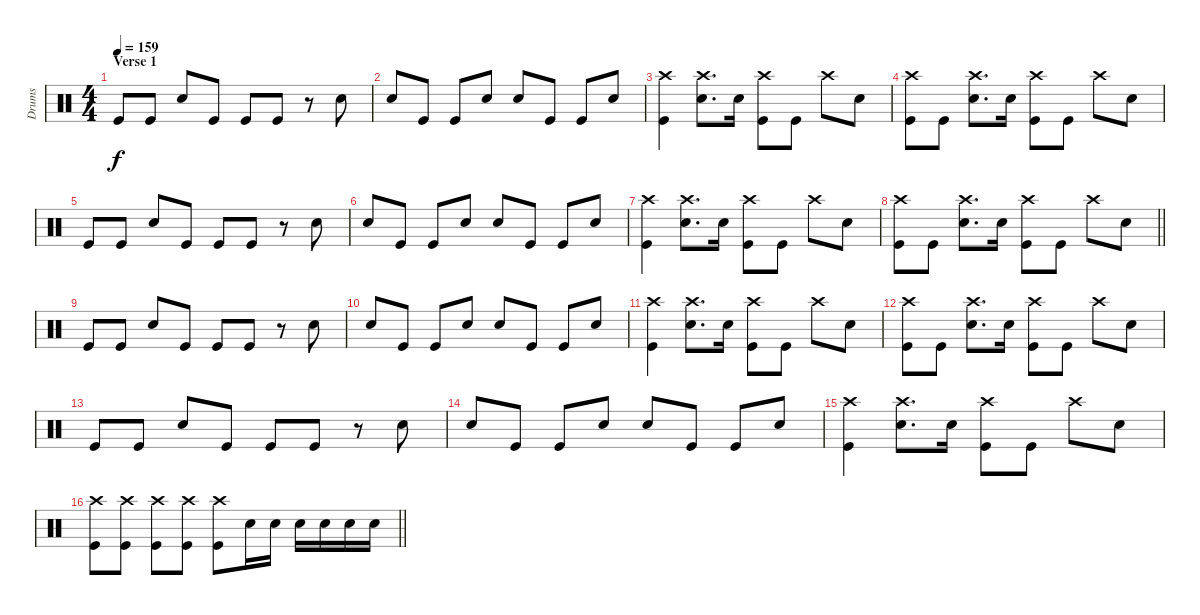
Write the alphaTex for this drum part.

\track ("Drums" "Drums") {instrument percussion}
\staff {score}
\articulation defaults
\ts (4 4)
\section ("" "Verse 1")
\tempo 159
\clef neutral
\ks c "Kick (hit)".8{dy f} "Kick (hit)".8 "Snare (hit) 2".8 "Kick (hit)".8 "Kick (hit)".8 "Kick (hit)".8
r.8 "Snare (hit) 2".8 |
"Snare (hit) 2".8 "Kick (hit)".8 "Kick (hit)".8 "Snare (hit) 2".8 "Snare (hit) 2".8 "Kick (hit)".8 "Kick (hit)".8 "Snare (hit) 2".8 |
("Crash high (hit)" "Kick (hit)").4 ("Crash high (hit)" "Snare (hit) 2").8{d} "Snare (hit) 2".16 ("Crash high (hit)" "Kick (hit)").8 "Kick (hit)".8 "Crash high (hit)".8 "Snare (hit) 2".8 |
("Crash high (hit)" "Kick (hit)").8 "Kick (hit)".8 ("Crash high (hit)" "Snare (hit) 2").8{d} "Snare (hit) 2".16 ("Crash high (hit)" "Kick (hit)").8 "Kick (hit)".8 "Crash high (hit)".8 "Snare (hit) 2".8 |
"Kick (hit)".8 "Kick (hit)".8 "Snare (hit) 2".8 "Kick (hit)".8 "Kick (hit)".8 "Kick (hit)".8 r.8 "Snare (hit) 2".8 |
"Snare (hit) 2".8 "Kick (hit)".8 "Kick (hit)".8 "Snare (hit) 2".8 "Snare (hit) 2".8 "Kick (hit)".8 "Kick (hit)".8 "Snare (hit) 2".8 |
("Crash high (hit)" "Kick (hit)").4 ("Crash high (hit)" "Snare (hit) 2").8{d} "Snare (hit) 2".16 ("Crash high (hit)" "Kick (hit)").8 "Kick (hit)".8 "Crash high (hit)".8 "Snare (hit) 2".8 |
\barLineRight lightlight
("Crash high (hit)" "Kick (hit)").8 "Kick (hit)".8 ("Crash high (hit)" "Snare (hit) 2").8{d} "Snare (hit) 2".16 ("Crash high (hit)" "Kick (hit)").8 "Kick (hit)".8 "Crash high (hit)".8 "Snare (hit) 2".8 |
\section ("" "")
"Kick (hit)".8 "Kick (hit)".8 "Snare (hit) 2".8 "Kick (hit)".8 "Kick (hit)".8 "Kick (hit)".8 r.8 "Snare (hit) 2".8 |
"Snare (hit) 2".8 "Kick (hit)".8 "Kick (hit)".8 "Snare (hit) 2".8 "Snare (hit) 2".8 "Kick (hit)".8 "Kick (hit)".8 "Snare (hit) 2".8 |
("Crash high (hit)" "Kick (hit)").4 ("Crash high (hit)" "Snare (hit) 2").8{d} "Snare (hit) 2".16 ("Crash high (hit)" "Kick (hit)").8 "Kick (hit)".8 "Crash high (hit)".8 "Snare (hit) 2".8 |
("Crash high (hit)" "Kick (hit)").8 "Kick (hit)".8 ("Crash high (hit)" "Snare (hit) 2").8{d} "Snare (hit) 2".16 ("Crash high (hit)" "Kick (hit)").8 "Kick (hit)".8 "Crash high (hit)".8 "Snare (hit) 2".8 |
"Kick (hit)".8 "Kick (hit)".8 "Snare (hit) 2".8 "Kick (hit)".8 "Kick (hit)".8 "Kick (hit)".8 r.8 "Snare (hit) 2".8 |
"Snare (hit) 2".8 "Kick (hit)".8 "Kick (hit)".8 "Snare (hit) 2".8 "Snare (hit) 2".8 "Kick (hit)".8 "Kick (hit)".8 "Snare (hit) 2".8 |
("Crash high (hit)" "Kick (hit)").4 ("Crash high (hit)" "Snare (hit) 2").8{d} "Snare (hit) 2".16 ("Crash high (hit)" "Kick (hit)").8 "Kick (hit)".8 "Crash high (hit)".8 "Snare (hit) 2".8 |
\barLineRight lightlight
("Crash high (hit)" "Kick (hit)").8 ("Crash high (hit)" "Kick (hit)").8 ("Crash high (hit)" "Kick (hit)").8 ("Crash high (hit)" "Kick (hit)").8 ("Crash high (hit)" "Kick (hit)").8 "Snare (hit) 2".16 "Snare (hit) 2".16 "Snare (hit) 2".16 "Snare (hit) 2".16 "Snare (hit) 2".16 "Snare (hit) 2".16
